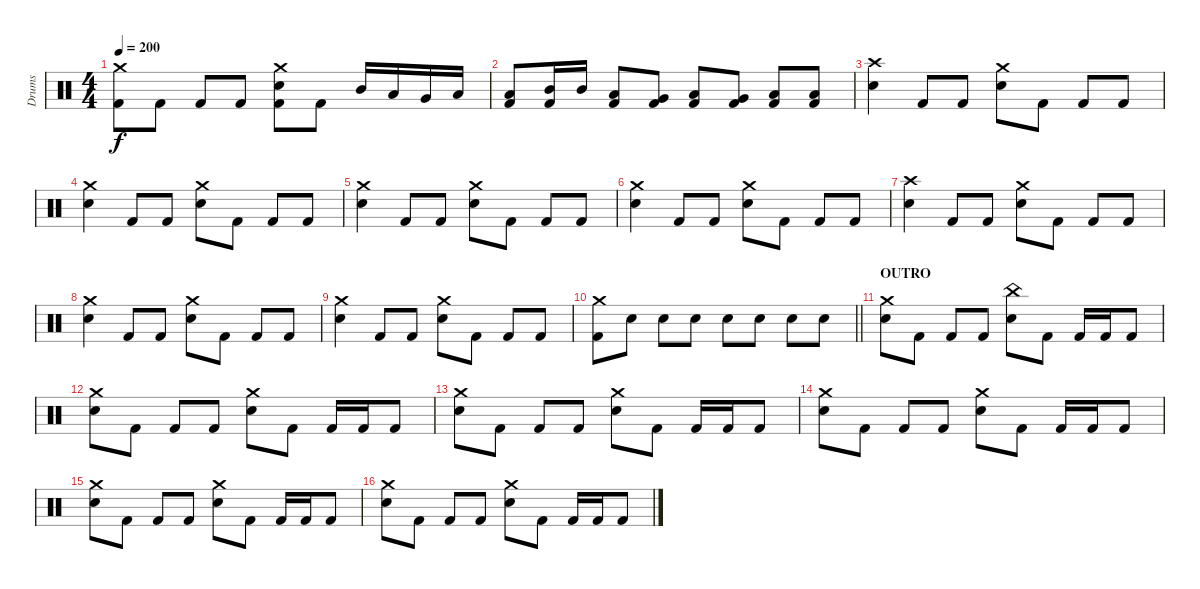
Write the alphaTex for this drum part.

\track ("Drums" "Drums") {instrument percussion}
\staff {score}
\articulation defaults
\ts (4 4)
\tempo 200
\clef neutral
\ks c
("Crash medium (hit)" "Kick (hit) 2").8{dy f} "Kick (hit) 2".8 "Kick (hit) 2".8 "Kick (hit) 2".8 ("Crash medium (hit)" "Electric Snare (hit)" "Kick (hit) 2").8 "Kick (hit) 2".8 "Mid Tom (hit)".16 "Low Tom (hit)".16 "Very Low Tom (hit)".16 "Low Floor Tom (hit)".16 |
("Low Tom (hit)" "Kick (hit) 2").8 ("Mid Tom (hit)" "Kick (hit) 2").16 "Mid Tom (hit)".16 ("Low Tom (hit)" "Kick (hit) 2").8 ("Very Low Tom (hit)" "Kick (hit) 2").8 ("Low Floor Tom (hit)" "Kick (hit) 2").8 ("Very Low Tom (hit)" "Kick (hit) 2").8 ("Low Floor Tom (hit)" "Kick (hit) 2").8 ("Low Tom (hit)" "Kick (hit) 2").8 |
("Crash high (hit)" "Electric Snare (hit)").4 "Kick (hit) 2".8 "Kick (hit) 2".8 ("Crash medium (hit)" "Electric Snare (hit)").8 "Kick (hit) 2".8 "Kick (hit) 2".8 "Kick (hit) 2".8 |
("Crash medium (hit)" "Electric Snare (hit)").4 "Kick (hit) 2".8 "Kick (hit) 2".8 ("Crash medium (hit)" "Electric Snare (hit)").8 "Kick (hit) 2".8 "Kick (hit) 2".8 "Kick (hit) 2".8 |
("Crash medium (hit)" "Electric Snare (hit)").4 "Kick (hit) 2".8 "Kick (hit) 2".8 ("Crash medium (hit)" "Electric Snare (hit)").8 "Kick (hit) 2".8 "Kick (hit) 2".8 "Kick (hit) 2".8 |
("Crash medium (hit)" "Electric Snare (hit)").4 "Kick (hit) 2".8 "Kick (hit) 2".8 ("Crash medium (hit)" "Electric Snare (hit)").8 "Kick (hit) 2".8 "Kick (hit) 2".8 "Kick (hit) 2".8 |
("Crash high (hit)" "Electric Snare (hit)").4 "Kick (hit) 2".8 "Kick (hit) 2".8 ("Crash medium (hit)" "Electric Snare (hit)").8 "Kick (hit) 2".8 "Kick (hit) 2".8 "Kick (hit) 2".8 |
("Crash medium (hit)" "Electric Snare (hit)").4 "Kick (hit) 2".8 "Kick (hit) 2".8 ("Crash medium (hit)" "Electric Snare (hit)").8 "Kick (hit) 2".8 "Kick (hit) 2".8 "Kick (hit) 2".8 |
("Crash medium (hit)" "Electric Snare (hit)").4 "Kick (hit) 2".8 "Kick (hit) 2".8 ("Crash medium (hit)" "Electric Snare (hit)").8 "Kick (hit) 2".8 "Kick (hit) 2".8 "Kick (hit) 2".8 |
\barLineRight lightlight
("Crash medium (hit)" "Kick (hit) 2").8 "Electric Snare (hit)".8 "Electric Snare (hit)".8 "Electric Snare (hit)".8 "Electric Snare (hit)".8 "Electric Snare (hit)".8 "Electric Snare (hit)".8 "Electric Snare (hit)".8 |
\section ("" "OUTRO")
("Crash medium (hit)" "Electric Snare (hit)").8 "Kick (hit) 2".8 "Kick (hit) 2".8 "Kick (hit) 2".8 ("China (hit)" "Electric Snare (hit)").8 "Kick (hit) 2".8 "Kick (hit) 2".16 "Kick (hit) 2".16 "Kick (hit) 2".8 |
("Crash medium (hit)" "Electric Snare (hit)").8 "Kick (hit) 2".8 "Kick (hit) 2".8 "Kick (hit) 2".8 ("Crash medium (hit)" "Electric Snare (hit)").8 "Kick (hit) 2".8 "Kick (hit) 2".16 "Kick (hit) 2".16 "Kick (hit) 2".8 |
("Crash medium (hit)" "Electric Snare (hit)").8 "Kick (hit) 2".8 "Kick (hit) 2".8 "Kick (hit) 2".8 ("Crash medium (hit)" "Electric Snare (hit)").8 "Kick (hit) 2".8 "Kick (hit) 2".16 "Kick (hit) 2".16 "Kick (hit) 2".8 |
("Crash medium (hit)" "Electric Snare (hit)").8 "Kick (hit) 2".8 "Kick (hit) 2".8 "Kick (hit) 2".8 ("Crash medium (hit)" "Electric Snare (hit)").8 "Kick (hit) 2".8 "Kick (hit) 2".16 "Kick (hit) 2".16 "Kick (hit) 2".8 |
("Crash medium (hit)" "Electric Snare (hit)").8 "Kick (hit) 2".8 "Kick (hit) 2".8 "Kick (hit) 2".8 ("Crash medium (hit)" "Electric Snare (hit)").8 "Kick (hit) 2".8 "Kick (hit) 2".16 "Kick (hit) 2".16 "Kick (hit) 2".8 |
("Crash medium (hit)" "Electric Snare (hit)").8 "Kick (hit) 2".8 "Kick (hit) 2".8 "Kick (hit) 2".8 ("Crash medium (hit)" "Electric Snare (hit)").8 "Kick (hit) 2".8 "Kick (hit) 2".16 "Kick (hit) 2".16 "Kick (hit) 2".8
